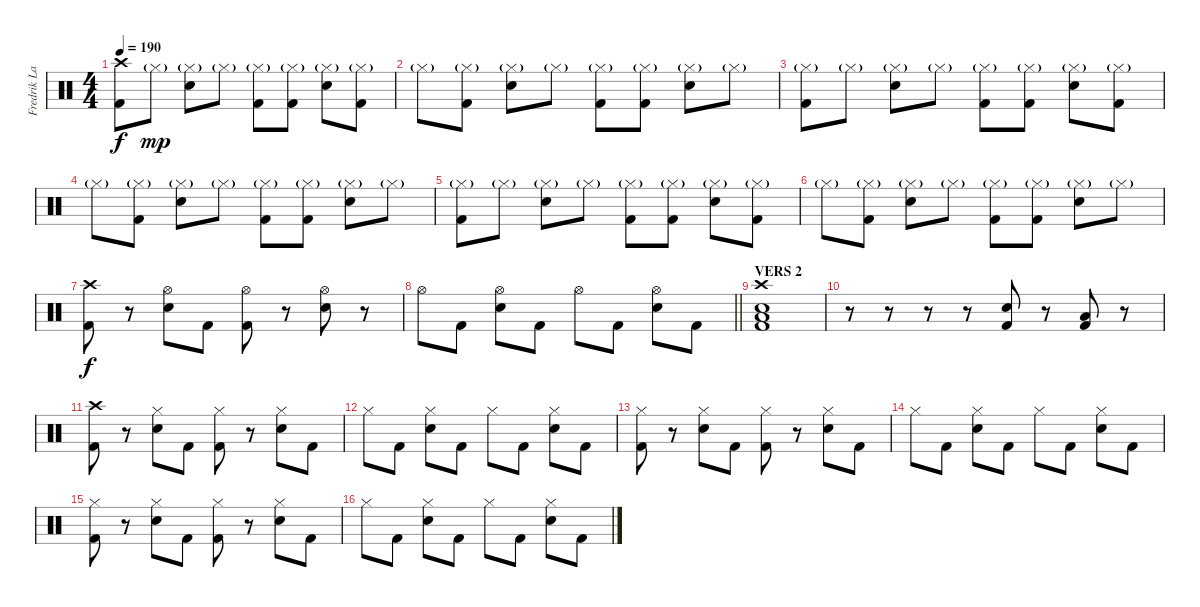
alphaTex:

\track ("Fredrik Larson" "Fredrik La") {instrument percussion}
\staff {score}
\articulation defaults
\ts (4 4)
\tempo 190
\clef neutral
\ks c
("Crash high (hit)" "Kick (hit) 2").8{dy f} "Hi-Hat (closed)"{g}.8{dy mp} ("Hi-Hat (closed)"{g} "Snare (hit) 2").8 "Hi-Hat (closed)"{g}.8 ("Hi-Hat (closed)"{g} "Kick (hit) 2").8 ("Hi-Hat (closed)"{g} "Kick (hit) 2").8 ("Hi-Hat (closed)"{g} "Snare (hit) 2").8 ("Hi-Hat (closed)"{g} "Kick (hit) 2").8 |
"Hi-Hat (closed)"{g}.8 ("Hi-Hat (closed)"{g} "Kick (hit) 2").8 ("Hi-Hat (closed)"{g} "Snare (hit) 2").8 "Hi-Hat (closed)"{g}.8 ("Hi-Hat (closed)"{g} "Kick (hit) 2").8 ("Hi-Hat (closed)"{g} "Kick (hit) 2").8 ("Hi-Hat (closed)"{g} "Snare (hit) 2").8 "Hi-Hat (closed)"{g}.8 |
("Hi-Hat (closed)"{g} "Kick (hit) 2").8 "Hi-Hat (closed)"{g}.8 ("Hi-Hat (closed)"{g} "Snare (hit) 2").8 "Hi-Hat (closed)"{g}.8 ("Hi-Hat (closed)"{g} "Kick (hit) 2").8 ("Hi-Hat (closed)"{g} "Kick (hit) 2").8 ("Hi-Hat (closed)"{g} "Snare (hit) 2").8 ("Hi-Hat (closed)"{g} "Kick (hit) 2").8 |
"Hi-Hat (closed)"{g}.8 ("Hi-Hat (closed)"{g} "Kick (hit) 2").8 ("Hi-Hat (closed)"{g} "Snare (hit) 2").8 "Hi-Hat (closed)"{g}.8 ("Hi-Hat (closed)"{g} "Kick (hit) 2").8 ("Hi-Hat (closed)"{g} "Kick (hit) 2").8 ("Hi-Hat (closed)"{g} "Snare (hit) 2").8 "Hi-Hat (closed)"{g}.8 |
("Hi-Hat (closed)"{g} "Kick (hit) 2").8 "Hi-Hat (closed)"{g}.8 ("Hi-Hat (closed)"{g} "Snare (hit) 2").8 "Hi-Hat (closed)"{g}.8 ("Hi-Hat (closed)"{g} "Kick (hit) 2").8 ("Hi-Hat (closed)"{g} "Kick (hit) 2").8 ("Hi-Hat (closed)"{g} "Snare (hit) 2").8 ("Hi-Hat (closed)"{g} "Kick (hit) 2").8 |
"Hi-Hat (closed)"{g}.8 ("Hi-Hat (closed)"{g} "Kick (hit) 2").8 ("Hi-Hat (closed)"{g} "Snare (hit) 2").8 "Hi-Hat (closed)"{g}.8 ("Hi-Hat (closed)"{g} "Kick (hit) 2").8 ("Hi-Hat (closed)"{g} "Kick (hit) 2").8 ("Hi-Hat (closed)"{g} "Snare (hit) 2").8 "Hi-Hat (closed)"{g}.8 |
("Crash high (hit)" "Kick (hit) 2").8{dy f} r.8 ("Hi-Hat (open)" "Snare (hit) 2").8 "Kick (hit) 2".8 ("Hi-Hat (open)" "Kick (hit) 2").8 r.8 ("Hi-Hat (open)" "Snare (hit) 2").8 r.8 |
\barLineRight lightlight "Hi-Hat (open)".8 "Kick (hit) 2".8
("Hi-Hat (open)" "Snare (hit) 2").8 "Kick (hit) 2".8 "Hi-Hat (open)".8 "Kick (hit) 2".8 ("Hi-Hat (open)" "Snare (hit) 2").8 "Kick (hit) 2".8 |
\section ("" "VERS 2")
("Crash high (hit)" "Low Floor Tom (hit)" "Snare (hit) 2" "Kick (hit) 2").1 |
r.8 r.8 r.8 r.8 ("Snare (hit) 2" "Kick (hit) 2").8 r.8 ("Low Floor Tom (hit)" "Kick (hit) 2").8 r.8 |
("Crash high (hit)" "Kick (hit) 2").8 r.8 ("Hi-Hat (closed)" "Snare (hit) 2").8 "Kick (hit) 2".8 ("Hi-Hat (closed)" "Kick (hit) 2").8 r.8 ("Hi-Hat (closed)" "Snare (hit) 2").8 "Kick (hit) 2".8 |
"Hi-Hat (closed)".8 "Kick (hit) 2".8 ("Hi-Hat (closed)" "Snare (hit) 2").8 "Kick (hit) 2".8 "Hi-Hat (closed)".8 "Kick (hit) 2".8 ("Hi-Hat (closed)" "Snare (hit) 2").8 "Kick (hit) 2".8 |
("Hi-Hat (closed)" "Kick (hit) 2").8 r.8 ("Hi-Hat (closed)" "Snare (hit) 2").8 "Kick (hit) 2".8 ("Hi-Hat (closed)" "Kick (hit) 2").8 r.8 ("Hi-Hat (closed)" "Snare (hit) 2").8 "Kick (hit) 2".8 |
"Hi-Hat (closed)".8 "Kick (hit) 2".8 ("Hi-Hat (closed)" "Snare (hit) 2").8 "Kick (hit) 2".8 "Hi-Hat (closed)".8 "Kick (hit) 2".8 ("Hi-Hat (closed)" "Snare (hit) 2").8 "Kick (hit) 2".8 |
("Hi-Hat (closed)" "Kick (hit) 2").8 r.8 ("Hi-Hat (closed)" "Snare (hit) 2").8 "Kick (hit) 2".8 ("Hi-Hat (closed)" "Kick (hit) 2").8 r.8 ("Hi-Hat (closed)" "Snare (hit) 2").8 "Kick (hit) 2".8 |
"Hi-Hat (closed)".8 "Kick (hit) 2".8 ("Hi-Hat (closed)" "Snare (hit) 2").8 "Kick (hit) 2".8 "Hi-Hat (closed)".8 "Kick (hit) 2".8 ("Hi-Hat (closed)" "Snare (hit) 2").8 "Kick (hit) 2".8
